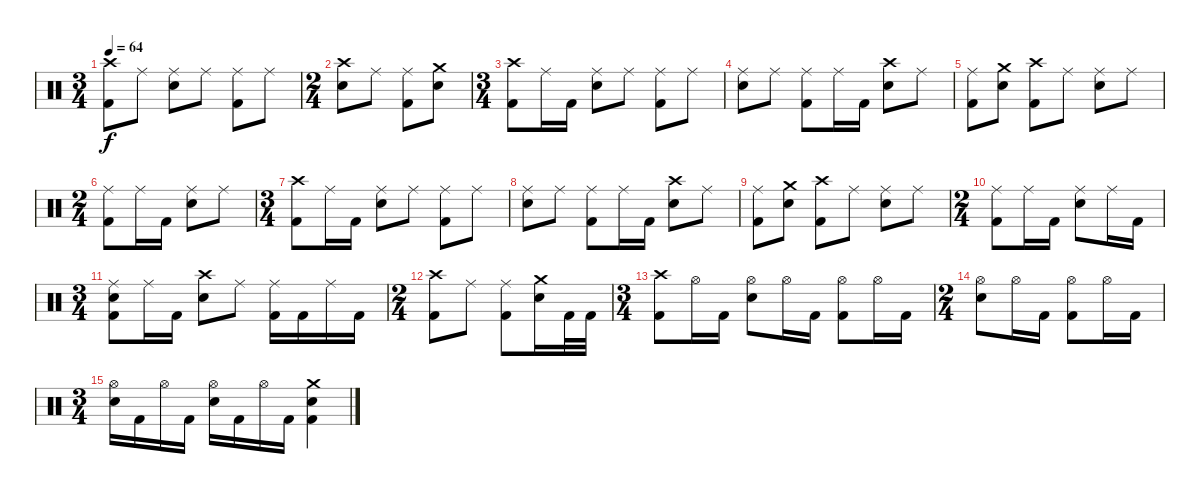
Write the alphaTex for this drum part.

\track "" {instrument percussion}
\staff {score}
\articulation defaults
\ts (3 4)
\tempo 64
\clef neutral
\ks c
("Crash high (hit)" "Kick (hit) 2").8{dy f} "Ride (middle)".8 ("Ride (middle)" "Snare (hit) 2").8 "Ride (middle)".8 ("Ride (middle)" "Kick (hit) 2").8 "Ride (middle)".8 |
\ts (2 4)
("Crash high (hit)" "Snare (hit) 2").8 "Ride (middle)".8 ("Ride (middle)" "Kick (hit) 2").8 ("Crash medium (hit)" "Snare (hit) 2").8 |
\ts (3 4)
("Crash high (hit)" "Kick (hit) 2").8 "Ride (middle)".16 "Kick (hit) 2".16 ("Ride (middle)" "Snare (hit) 2").8 "Ride (middle)".8 ("Ride (middle)" "Kick (hit) 2").8 "Ride (middle)".8 |
("Ride (middle)" "Snare (hit) 2").8 "Ride (middle)".8 ("Ride (middle)" "Kick (hit) 2").8 "Ride (middle)".16 "Kick (hit) 2".16 ("Crash high (hit)" "Snare (hit) 2").8 "Ride (middle)".8 |
("Ride (middle)" "Kick (hit) 2").8 ("Crash medium (hit)" "Snare (hit) 2").8 ("Crash high (hit)" "Kick (hit) 2").8 "Ride (middle)".8 ("Ride (middle)" "Snare (hit) 2").8 "Ride (middle)".8 |
\ts (2 4)
("Ride (middle)" "Kick (hit) 2").8 "Ride (middle)".16 "Kick (hit) 2".16 ("Ride (middle)" "Snare (hit) 2").8 "Ride (middle)".8 |
\ts (3 4)
("Crash high (hit)" "Kick (hit) 2").8 "Ride (middle)".16 "Kick (hit) 2".16 ("Ride (middle)" "Snare (hit) 2").8 "Ride (middle)".8 ("Ride (middle)" "Kick (hit) 2").8 "Ride (middle)".8 |
("Ride (middle)" "Snare (hit) 2").8 "Ride (middle)".8 ("Ride (middle)" "Kick (hit) 2").8 "Ride (middle)".16 "Kick (hit) 2".16 ("Crash high (hit)" "Snare (hit) 2").8 "Ride (middle)".8 |
("Ride (middle)" "Kick (hit) 2").8 ("Crash medium (hit)" "Snare (hit) 2").8 ("Crash high (hit)" "Kick (hit) 2").8 "Ride (middle)".8 ("Ride (middle)" "Snare (hit) 2").8 "Ride (middle)".8 |
\ts (2 4)
("Ride (middle)" "Kick (hit) 2").8 "Ride (middle)".16 "Kick (hit) 2".16 ("Ride (middle)" "Snare (hit) 2").8 "Ride (middle)".16 "Kick (hit) 2".16 |
\ts (3 4)
("Ride (middle)" "Snare (hit) 2" "Kick (hit) 2").8 "Ride (middle)".16 "Kick (hit) 2".16 ("Crash high (hit)" "Snare (hit) 2").8 "Ride (middle)".8 ("Ride (middle)" "Kick (hit) 2").16 "Kick (hit) 2".16 "Ride (middle)".16 "Kick (hit) 2".16 |
\ts (2 4)
("Crash high (hit)" "Kick (hit) 2").8 "Ride (middle)".8 ("Ride (middle)" "Kick (hit) 2").8 ("Crash medium (hit)" "Snare (hit) 2").16 "Kick (hit) 2".32 "Kick (hit) 2".32 |
\ts (3 4)
("Crash high (hit)" "Kick (hit) 2").8 "Hi-Hat (open)".16 "Kick (hit) 2".16 ("Hi-Hat (open)" "Snare (hit) 2").8 "Hi-Hat (open)".16 "Kick (hit) 2".16 ("Hi-Hat (open)" "Kick (hit) 2").8 "Hi-Hat (open)".16 "Kick (hit) 2".16 |
\ts (2 4)
("Hi-Hat (open)" "Snare (hit) 2").8 "Hi-Hat (open)".16 "Kick (hit) 2".16 ("Hi-Hat (open)" "Kick (hit) 2").8 "Hi-Hat (open)".16 "Kick (hit) 2".16 |
\ts (3 4)
("Hi-Hat (open)" "Snare (hit) 2").16 "Kick (hit) 2".16 "Hi-Hat (open)".16 "Kick (hit) 2".16 ("Hi-Hat (open)" "Snare (hit) 2").16 "Kick (hit) 2".16 "Hi-Hat (open)".16 "Kick (hit) 2".16 ("Crash medium (hit)" "Snare (hit) 2" "Kick (hit) 2").4
